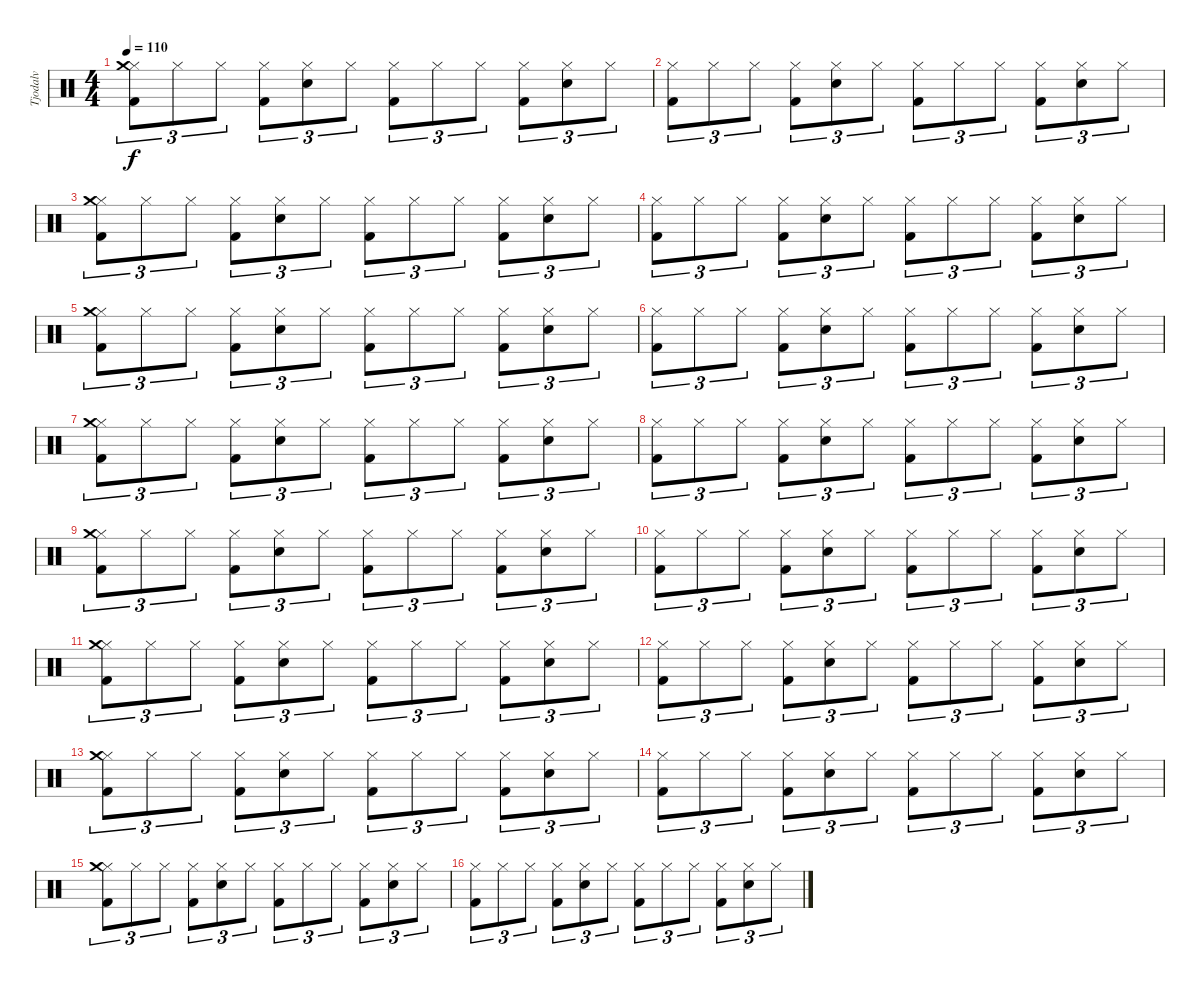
\track ("Tjodalv" "Tjodalv") {instrument percussion}
\staff {score}
\articulation defaults
\ts (4 4)
\tempo 110
\clef neutral
\ks c
("Kick (hit) 2" "Hi-Hat (closed)" "Crash medium (hit)").8{tu (3 2) dy f} "Hi-Hat (closed)".8{tu (3 2)} "Hi-Hat (closed)".8{tu (3 2)} ("Kick (hit) 2" "Hi-Hat (closed)").8{tu (3 2)} ("Snare (hit) 2" "Hi-Hat (closed)").8{tu (3 2)} "Hi-Hat (closed)".8{tu (3 2)} ("Kick (hit) 2" "Hi-Hat (closed)").8{tu (3 2)} "Hi-Hat (closed)".8{tu (3 2)} "Hi-Hat (closed)".8{tu (3 2)} ("Kick (hit) 2" "Hi-Hat (closed)").8{tu (3 2)} ("Snare (hit) 2" "Hi-Hat (closed)").8{tu (3 2)} "Hi-Hat (closed)".8{tu (3 2)} |
("Kick (hit) 2" "Hi-Hat (closed)").8{tu (3 2)} "Hi-Hat (closed)".8{tu (3 2)} "Hi-Hat (closed)".8{tu (3 2)} ("Kick (hit) 2" "Hi-Hat (closed)").8{tu (3 2)} ("Snare (hit) 2" "Hi-Hat (closed)").8{tu (3 2)} "Hi-Hat (closed)".8{tu (3 2)} ("Kick (hit) 2" "Hi-Hat (closed)").8{tu (3 2)} "Hi-Hat (closed)".8{tu (3 2)} "Hi-Hat (closed)".8{tu (3 2)} ("Kick (hit) 2" "Hi-Hat (closed)").8{tu (3 2)} ("Snare (hit) 2" "Hi-Hat (closed)").8{tu (3 2)} "Hi-Hat (closed)".8{tu (3 2)} |
("Kick (hit) 2" "Hi-Hat (closed)" "Crash medium (hit)").8{tu (3 2)} "Hi-Hat (closed)".8{tu (3 2)} "Hi-Hat (closed)".8{tu (3 2)} ("Kick (hit) 2" "Hi-Hat (closed)").8{tu (3 2)} ("Snare (hit) 2" "Hi-Hat (closed)").8{tu (3 2)} "Hi-Hat (closed)".8{tu (3 2)} ("Kick (hit) 2" "Hi-Hat (closed)").8{tu (3 2)} "Hi-Hat (closed)".8{tu (3 2)} "Hi-Hat (closed)".8{tu (3 2)} ("Kick (hit) 2" "Hi-Hat (closed)").8{tu (3 2)} ("Snare (hit) 2" "Hi-Hat (closed)").8{tu (3 2)} "Hi-Hat (closed)".8{tu (3 2)} |
("Kick (hit) 2" "Hi-Hat (closed)").8{tu (3 2)} "Hi-Hat (closed)".8{tu (3 2)} "Hi-Hat (closed)".8{tu (3 2)} ("Kick (hit) 2" "Hi-Hat (closed)").8{tu (3 2)} ("Snare (hit) 2" "Hi-Hat (closed)").8{tu (3 2)} "Hi-Hat (closed)".8{tu (3 2)} ("Kick (hit) 2" "Hi-Hat (closed)").8{tu (3 2)} "Hi-Hat (closed)".8{tu (3 2)} "Hi-Hat (closed)".8{tu (3 2)} ("Kick (hit) 2" "Hi-Hat (closed)").8{tu (3 2)} ("Snare (hit) 2" "Hi-Hat (closed)").8{tu (3 2)} "Hi-Hat (closed)".8{tu (3 2)} |
("Kick (hit) 2" "Hi-Hat (closed)" "Crash medium (hit)").8{tu (3 2)} "Hi-Hat (closed)".8{tu (3 2)} "Hi-Hat (closed)".8{tu (3 2)} ("Kick (hit) 2" "Hi-Hat (closed)").8{tu (3 2)} ("Snare (hit) 2" "Hi-Hat (closed)").8{tu (3 2)} "Hi-Hat (closed)".8{tu (3 2)} ("Kick (hit) 2" "Hi-Hat (closed)").8{tu (3 2)} "Hi-Hat (closed)".8{tu (3 2)} "Hi-Hat (closed)".8{tu (3 2)} ("Kick (hit) 2" "Hi-Hat (closed)").8{tu (3 2)} ("Snare (hit) 2" "Hi-Hat (closed)").8{tu (3 2)} "Hi-Hat (closed)".8{tu (3 2)} |
("Kick (hit) 2" "Hi-Hat (closed)").8{tu (3 2)} "Hi-Hat (closed)".8{tu (3 2)} "Hi-Hat (closed)".8{tu (3 2)} ("Kick (hit) 2" "Hi-Hat (closed)").8{tu (3 2)} ("Snare (hit) 2" "Hi-Hat (closed)").8{tu (3 2)} "Hi-Hat (closed)".8{tu (3 2)} ("Kick (hit) 2" "Hi-Hat (closed)").8{tu (3 2)} "Hi-Hat (closed)".8{tu (3 2)} "Hi-Hat (closed)".8{tu (3 2)} ("Kick (hit) 2" "Hi-Hat (closed)").8{tu (3 2)} ("Snare (hit) 2" "Hi-Hat (closed)").8{tu (3 2)} "Hi-Hat (closed)".8{tu (3 2)} |
("Kick (hit) 2" "Hi-Hat (closed)" "Crash medium (hit)").8{tu (3 2)} "Hi-Hat (closed)".8{tu (3 2)} "Hi-Hat (closed)".8{tu (3 2)} ("Kick (hit) 2" "Hi-Hat (closed)").8{tu (3 2)} ("Snare (hit) 2" "Hi-Hat (closed)").8{tu (3 2)} "Hi-Hat (closed)".8{tu (3 2)} ("Kick (hit) 2" "Hi-Hat (closed)").8{tu (3 2)} "Hi-Hat (closed)".8{tu (3 2)} "Hi-Hat (closed)".8{tu (3 2)} ("Kick (hit) 2" "Hi-Hat (closed)").8{tu (3 2)} ("Snare (hit) 2" "Hi-Hat (closed)").8{tu (3 2)} "Hi-Hat (closed)".8{tu (3 2)} |
("Kick (hit) 2" "Hi-Hat (closed)").8{tu (3 2)} "Hi-Hat (closed)".8{tu (3 2)} "Hi-Hat (closed)".8{tu (3 2)} ("Kick (hit) 2" "Hi-Hat (closed)").8{tu (3 2)} ("Snare (hit) 2" "Hi-Hat (closed)").8{tu (3 2)} "Hi-Hat (closed)".8{tu (3 2)} ("Kick (hit) 2" "Hi-Hat (closed)").8{tu (3 2)} "Hi-Hat (closed)".8{tu (3 2)} "Hi-Hat (closed)".8{tu (3 2)} ("Kick (hit) 2" "Hi-Hat (closed)").8{tu (3 2)} ("Snare (hit) 2" "Hi-Hat (closed)").8{tu (3 2)} "Hi-Hat (closed)".8{tu (3 2)} |
("Kick (hit) 2" "Hi-Hat (closed)" "Crash medium (hit)").8{tu (3 2)} "Hi-Hat (closed)".8{tu (3 2)} "Hi-Hat (closed)".8{tu (3 2)} ("Kick (hit) 2" "Hi-Hat (closed)").8{tu (3 2)} ("Snare (hit) 2" "Hi-Hat (closed)").8{tu (3 2)} "Hi-Hat (closed)".8{tu (3 2)} ("Kick (hit) 2" "Hi-Hat (closed)").8{tu (3 2)} "Hi-Hat (closed)".8{tu (3 2)} "Hi-Hat (closed)".8{tu (3 2)} ("Kick (hit) 2" "Hi-Hat (closed)").8{tu (3 2)} ("Snare (hit) 2" "Hi-Hat (closed)").8{tu (3 2)} "Hi-Hat (closed)".8{tu (3 2)} |
("Kick (hit) 2" "Hi-Hat (closed)").8{tu (3 2)} "Hi-Hat (closed)".8{tu (3 2)} "Hi-Hat (closed)".8{tu (3 2)} ("Kick (hit) 2" "Hi-Hat (closed)").8{tu (3 2)} ("Snare (hit) 2" "Hi-Hat (closed)").8{tu (3 2)} "Hi-Hat (closed)".8{tu (3 2)} ("Kick (hit) 2" "Hi-Hat (closed)").8{tu (3 2)} "Hi-Hat (closed)".8{tu (3 2)} "Hi-Hat (closed)".8{tu (3 2)} ("Kick (hit) 2" "Hi-Hat (closed)").8{tu (3 2)} ("Snare (hit) 2" "Hi-Hat (closed)").8{tu (3 2)} "Hi-Hat (closed)".8{tu (3 2)} |
("Kick (hit) 2" "Hi-Hat (closed)" "Crash medium (hit)").8{tu (3 2)} "Hi-Hat (closed)".8{tu (3 2)} "Hi-Hat (closed)".8{tu (3 2)} ("Kick (hit) 2" "Hi-Hat (closed)").8{tu (3 2)} ("Snare (hit) 2" "Hi-Hat (closed)").8{tu (3 2)} "Hi-Hat (closed)".8{tu (3 2)} ("Kick (hit) 2" "Hi-Hat (closed)").8{tu (3 2)} "Hi-Hat (closed)".8{tu (3 2)} "Hi-Hat (closed)".8{tu (3 2)} ("Kick (hit) 2" "Hi-Hat (closed)").8{tu (3 2)} ("Snare (hit) 2" "Hi-Hat (closed)").8{tu (3 2)} "Hi-Hat (closed)".8{tu (3 2)} |
("Kick (hit) 2" "Hi-Hat (closed)").8{tu (3 2)} "Hi-Hat (closed)".8{tu (3 2)} "Hi-Hat (closed)".8{tu (3 2)} ("Kick (hit) 2" "Hi-Hat (closed)").8{tu (3 2)} ("Snare (hit) 2" "Hi-Hat (closed)").8{tu (3 2)} "Hi-Hat (closed)".8{tu (3 2)} ("Kick (hit) 2" "Hi-Hat (closed)").8{tu (3 2)} "Hi-Hat (closed)".8{tu (3 2)} "Hi-Hat (closed)".8{tu (3 2)} ("Kick (hit) 2" "Hi-Hat (closed)").8{tu (3 2)} ("Snare (hit) 2" "Hi-Hat (closed)").8{tu (3 2)} "Hi-Hat (closed)".8{tu (3 2)} |
("Kick (hit) 2" "Hi-Hat (closed)" "Crash medium (hit)").8{tu (3 2)} "Hi-Hat (closed)".8{tu (3 2)} "Hi-Hat (closed)".8{tu (3 2)} ("Kick (hit) 2" "Hi-Hat (closed)").8{tu (3 2)} ("Snare (hit) 2" "Hi-Hat (closed)").8{tu (3 2)} "Hi-Hat (closed)".8{tu (3 2)} ("Kick (hit) 2" "Hi-Hat (closed)").8{tu (3 2)} "Hi-Hat (closed)".8{tu (3 2)} "Hi-Hat (closed)".8{tu (3 2)} ("Kick (hit) 2" "Hi-Hat (closed)").8{tu (3 2)} ("Snare (hit) 2" "Hi-Hat (closed)").8{tu (3 2)} "Hi-Hat (closed)".8{tu (3 2)} |
("Kick (hit) 2" "Hi-Hat (closed)").8{tu (3 2)} "Hi-Hat (closed)".8{tu (3 2)} "Hi-Hat (closed)".8{tu (3 2)} ("Kick (hit) 2" "Hi-Hat (closed)").8{tu (3 2)} ("Snare (hit) 2" "Hi-Hat (closed)").8{tu (3 2)} "Hi-Hat (closed)".8{tu (3 2)} ("Kick (hit) 2" "Hi-Hat (closed)").8{tu (3 2)} "Hi-Hat (closed)".8{tu (3 2)} "Hi-Hat (closed)".8{tu (3 2)} ("Kick (hit) 2" "Hi-Hat (closed)").8{tu (3 2)} ("Snare (hit) 2" "Hi-Hat (closed)").8{tu (3 2)} "Hi-Hat (closed)".8{tu (3 2)} |
("Kick (hit) 2" "Hi-Hat (closed)" "Crash medium (hit)").8{tu (3 2)} "Hi-Hat (closed)".8{tu (3 2)} "Hi-Hat (closed)".8{tu (3 2)} ("Kick (hit) 2" "Hi-Hat (closed)").8{tu (3 2)} ("Snare (hit) 2" "Hi-Hat (closed)").8{tu (3 2)} "Hi-Hat (closed)".8{tu (3 2)} ("Kick (hit) 2" "Hi-Hat (closed)").8{tu (3 2)} "Hi-Hat (closed)".8{tu (3 2)} "Hi-Hat (closed)".8{tu (3 2)} ("Kick (hit) 2" "Hi-Hat (closed)").8{tu (3 2)} ("Snare (hit) 2" "Hi-Hat (closed)").8{tu (3 2)} "Hi-Hat (closed)".8{tu (3 2)} |
("Kick (hit) 2" "Hi-Hat (closed)").8{tu (3 2)} "Hi-Hat (closed)".8{tu (3 2)} "Hi-Hat (closed)".8{tu (3 2)} ("Kick (hit) 2" "Hi-Hat (closed)").8{tu (3 2)} ("Snare (hit) 2" "Hi-Hat (closed)").8{tu (3 2)} "Hi-Hat (closed)".8{tu (3 2)} ("Kick (hit) 2" "Hi-Hat (closed)").8{tu (3 2)} "Hi-Hat (closed)".8{tu (3 2)} "Hi-Hat (closed)".8{tu (3 2)} ("Kick (hit) 2" "Hi-Hat (closed)").8{tu (3 2)} ("Snare (hit) 2" "Hi-Hat (closed)").8{tu (3 2)} "Hi-Hat (closed)".8{tu (3 2)}
